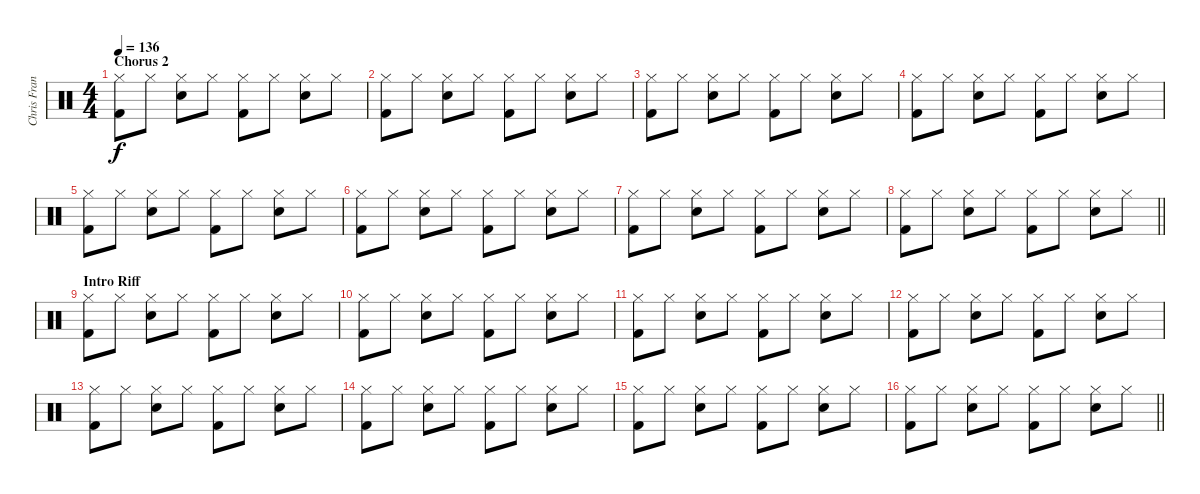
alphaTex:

\track ("Chris Frantz" "Chris Fran") {instrument percussion}
\staff {score}
\articulation defaults
\ts (4 4)
\section ("" "Chorus 2")
\tempo 136
\clef neutral
\ks c
("Hi-Hat (closed)" "Kick (hit) 2").8{dy f} "Hi-Hat (closed)".8 ("Hi-Hat (closed)" "Electric Snare (hit)").8 "Hi-Hat (closed)".8 ("Hi-Hat (closed)" "Kick (hit) 2").8 "Hi-Hat (closed)".8 ("Hi-Hat (closed)" "Electric Snare (hit)").8 "Hi-Hat (closed)".8 |
("Hi-Hat (closed)" "Kick (hit) 2").8 "Hi-Hat (closed)".8 ("Hi-Hat (closed)" "Electric Snare (hit)").8 "Hi-Hat (closed)".8 ("Hi-Hat (closed)" "Kick (hit) 2").8 "Hi-Hat (closed)".8 ("Hi-Hat (closed)" "Electric Snare (hit)").8 "Hi-Hat (closed)".8 |
("Hi-Hat (closed)" "Kick (hit) 2").8 "Hi-Hat (closed)".8 ("Hi-Hat (closed)" "Electric Snare (hit)").8 "Hi-Hat (closed)".8 ("Hi-Hat (closed)" "Kick (hit) 2").8 "Hi-Hat (closed)".8 ("Hi-Hat (closed)" "Electric Snare (hit)").8 "Hi-Hat (closed)".8 |
("Hi-Hat (closed)" "Kick (hit) 2").8 "Hi-Hat (closed)".8 ("Hi-Hat (closed)" "Electric Snare (hit)").8 "Hi-Hat (closed)".8 ("Hi-Hat (closed)" "Kick (hit) 2").8 "Hi-Hat (closed)".8 ("Hi-Hat (closed)" "Electric Snare (hit)").8 "Hi-Hat (closed)".8 |
("Hi-Hat (closed)" "Kick (hit) 2").8 "Hi-Hat (closed)".8 ("Hi-Hat (closed)" "Electric Snare (hit)").8 "Hi-Hat (closed)".8 ("Hi-Hat (closed)" "Kick (hit) 2").8 "Hi-Hat (closed)".8 ("Hi-Hat (closed)" "Electric Snare (hit)").8 "Hi-Hat (closed)".8 |
("Hi-Hat (closed)" "Kick (hit) 2").8 "Hi-Hat (closed)".8 ("Hi-Hat (closed)" "Electric Snare (hit)").8 "Hi-Hat (closed)".8 ("Hi-Hat (closed)" "Kick (hit) 2").8 "Hi-Hat (closed)".8 ("Hi-Hat (closed)" "Electric Snare (hit)").8 "Hi-Hat (closed)".8 |
("Hi-Hat (closed)" "Kick (hit) 2").8 "Hi-Hat (closed)".8 ("Hi-Hat (closed)" "Electric Snare (hit)").8 "Hi-Hat (closed)".8 ("Hi-Hat (closed)" "Kick (hit) 2").8 "Hi-Hat (closed)".8 ("Hi-Hat (closed)" "Electric Snare (hit)").8 "Hi-Hat (closed)".8 |
\barLineRight lightlight
("Hi-Hat (closed)" "Kick (hit) 2").8 "Hi-Hat (closed)".8 ("Hi-Hat (closed)" "Electric Snare (hit)").8 "Hi-Hat (closed)".8 ("Hi-Hat (closed)" "Kick (hit) 2").8 "Hi-Hat (closed)".8 ("Hi-Hat (closed)" "Electric Snare (hit)").8 "Hi-Hat (closed)".8 |
\section ("" "Intro Riff")
("Hi-Hat (closed)" "Kick (hit) 2").8 "Hi-Hat (closed)".8 ("Hi-Hat (closed)" "Electric Snare (hit)").8 "Hi-Hat (closed)".8 ("Hi-Hat (closed)" "Kick (hit) 2").8 "Hi-Hat (closed)".8 ("Hi-Hat (closed)" "Electric Snare (hit)").8 "Hi-Hat (closed)".8 |
("Hi-Hat (closed)" "Kick (hit) 2").8 "Hi-Hat (closed)".8 ("Hi-Hat (closed)" "Electric Snare (hit)").8 "Hi-Hat (closed)".8 ("Hi-Hat (closed)" "Kick (hit) 2").8 "Hi-Hat (closed)".8 ("Hi-Hat (closed)" "Electric Snare (hit)").8 "Hi-Hat (closed)".8 |
("Hi-Hat (closed)" "Kick (hit) 2").8 "Hi-Hat (closed)".8 ("Hi-Hat (closed)" "Electric Snare (hit)").8 "Hi-Hat (closed)".8 ("Hi-Hat (closed)" "Kick (hit) 2").8 "Hi-Hat (closed)".8 ("Hi-Hat (closed)" "Electric Snare (hit)").8 "Hi-Hat (closed)".8 |
("Hi-Hat (closed)" "Kick (hit) 2").8 "Hi-Hat (closed)".8 ("Hi-Hat (closed)" "Electric Snare (hit)").8 "Hi-Hat (closed)".8 ("Hi-Hat (closed)" "Kick (hit) 2").8 "Hi-Hat (closed)".8 ("Hi-Hat (closed)" "Electric Snare (hit)").8 "Hi-Hat (closed)".8 |
("Hi-Hat (closed)" "Kick (hit) 2").8 "Hi-Hat (closed)".8 ("Hi-Hat (closed)" "Electric Snare (hit)").8 "Hi-Hat (closed)".8 ("Hi-Hat (closed)" "Kick (hit) 2").8 "Hi-Hat (closed)".8 ("Hi-Hat (closed)" "Electric Snare (hit)").8 "Hi-Hat (closed)".8 |
("Hi-Hat (closed)" "Kick (hit) 2").8 "Hi-Hat (closed)".8 ("Hi-Hat (closed)" "Electric Snare (hit)").8 "Hi-Hat (closed)".8 ("Hi-Hat (closed)" "Kick (hit) 2").8 "Hi-Hat (closed)".8 ("Hi-Hat (closed)" "Electric Snare (hit)").8 "Hi-Hat (closed)".8 |
("Hi-Hat (closed)" "Kick (hit) 2").8 "Hi-Hat (closed)".8 ("Hi-Hat (closed)" "Electric Snare (hit)").8 "Hi-Hat (closed)".8 ("Hi-Hat (closed)" "Kick (hit) 2").8 "Hi-Hat (closed)".8 ("Hi-Hat (closed)" "Electric Snare (hit)").8 "Hi-Hat (closed)".8 |
\barLineRight lightlight
("Hi-Hat (closed)" "Kick (hit) 2").8 "Hi-Hat (closed)".8 ("Hi-Hat (closed)" "Electric Snare (hit)").8 "Hi-Hat (closed)".8 ("Hi-Hat (closed)" "Kick (hit) 2").8 "Hi-Hat (closed)".8 ("Hi-Hat (closed)" "Electric Snare (hit)").8 "Hi-Hat (closed)".8
